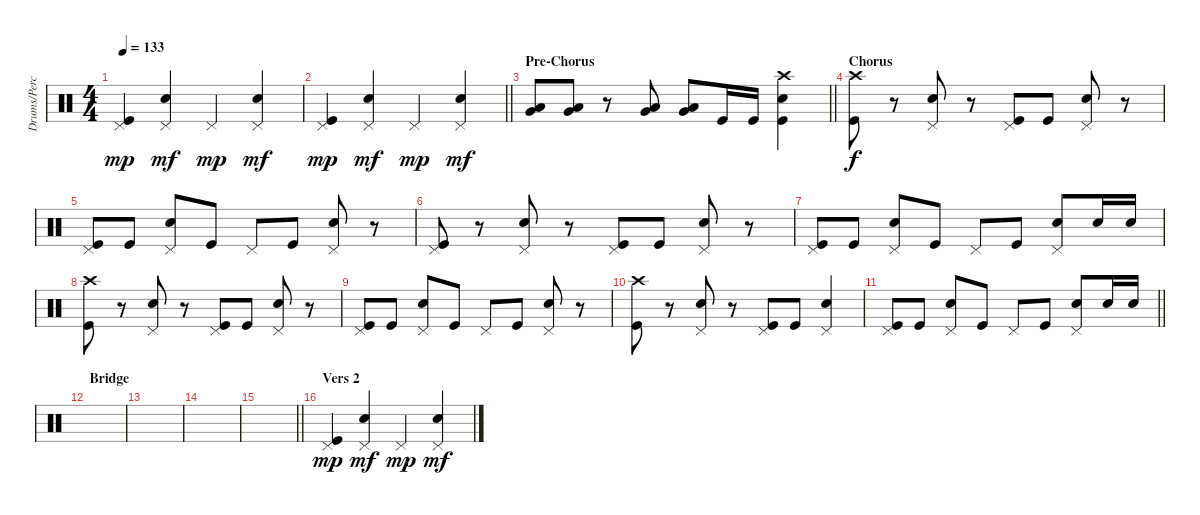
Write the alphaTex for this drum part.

\track ("Drums/Percussion" "Drums/Perc") {instrument percussion}
\staff {score}
\articulation defaults
\ts (4 4)
\tempo 133
\clef neutral
\ks c
("Pedal Hi-Hat (hit)" "Kick (hit)").4{dy mp} ("Pedal Hi-Hat (hit)" "Snare (hit) 2").4{dy mf} "Pedal Hi-Hat (hit)".4{dy mp} ("Pedal Hi-Hat (hit)" "Snare (hit) 2").4{dy mf} |
\barLineRight lightlight
("Pedal Hi-Hat (hit)" "Kick (hit)").4{dy mp} ("Pedal Hi-Hat (hit)" "Snare (hit) 2").4{dy mf} "Pedal Hi-Hat (hit)".4{dy mp} ("Pedal Hi-Hat (hit)" "Snare (hit) 2").4{dy mf} |
\section ("" "Pre-Chorus")
\barLineRight lightlight
("Low Floor Tom (hit)" "Very Low Tom (hit)").8 ("Low Floor Tom (hit)" "Very Low Tom (hit)").8 r.8 ("Low Floor Tom (hit)" "Very Low Tom (hit)").8 ("Low Floor Tom (hit)" "Very Low Tom (hit)").8 "Kick (hit)".16 "Kick (hit)".16 ("Crash high (hit)" "Kick (hit)" "Snare (hit) 2").4 |
\section ("" "Chorus")
("Crash high (hit)" "Kick (hit)").8{dy f} r.8 ("Pedal Hi-Hat (hit)" "Snare (hit) 2").8 r.8 ("Pedal Hi-Hat (hit)" "Kick (hit)").8 "Kick (hit)".8 ("Pedal Hi-Hat (hit)" "Snare (hit) 2").8 r.8 |
("Pedal Hi-Hat (hit)" "Kick (hit)").8 "Kick (hit)".8 ("Pedal Hi-Hat (hit)" "Snare (hit) 2").8 "Kick (hit)".8 "Pedal Hi-Hat (hit)".8 "Kick (hit)".8 ("Pedal Hi-Hat (hit)" "Snare (hit) 2").8 r.8 |
("Pedal Hi-Hat (hit)" "Kick (hit)").8 r.8 ("Pedal Hi-Hat (hit)" "Snare (hit) 2").8 r.8 ("Pedal Hi-Hat (hit)" "Kick (hit)").8 "Kick (hit)".8 ("Pedal Hi-Hat (hit)" "Snare (hit) 2").8 r.8 |
("Pedal Hi-Hat (hit)" "Kick (hit)").8 "Kick (hit)".8 ("Pedal Hi-Hat (hit)" "Snare (hit) 2").8 "Kick (hit)".8 "Pedal Hi-Hat (hit)".8 "Kick (hit)".8 ("Pedal Hi-Hat (hit)" "Snare (hit) 2").8 "Snare (hit) 2".16 "Snare (hit) 2".16 |
("Crash high (hit)" "Kick (hit)").8 r.8 ("Pedal Hi-Hat (hit)" "Snare (hit) 2").8 r.8 ("Pedal Hi-Hat (hit)" "Kick (hit)").8 "Kick (hit)".8 ("Pedal Hi-Hat (hit)" "Snare (hit) 2").8 r.8 |
("Pedal Hi-Hat (hit)" "Kick (hit)").8 "Kick (hit)".8 ("Pedal Hi-Hat (hit)" "Snare (hit) 2").8 "Kick (hit)".8 "Pedal Hi-Hat (hit)".8 "Kick (hit)".8 ("Pedal Hi-Hat (hit)" "Snare (hit) 2").8 r.8 |
("Crash high (hit)" "Kick (hit)").8 r.8 ("Pedal Hi-Hat (hit)" "Snare (hit) 2").8 r.8 ("Pedal Hi-Hat (hit)" "Kick (hit)").8 "Kick (hit)".8 ("Pedal Hi-Hat (hit)" "Snare (hit) 2").4 |
\barLineRight lightlight
("Pedal Hi-Hat (hit)" "Kick (hit)").8 "Kick (hit)".8 ("Pedal Hi-Hat (hit)" "Snare (hit) 2").8 "Kick (hit)".8 "Pedal Hi-Hat (hit)".8 "Kick (hit)".8 ("Pedal Hi-Hat (hit)" "Snare (hit) 2").8 "Snare (hit) 2".16 "Snare (hit) 2".16 |
\section ("" "Bridge")
|
|
|
\barLineRight lightlight
|
\section ("" "Vers 2")
("Pedal Hi-Hat (hit)" "Kick (hit)").4{dy mp} ("Pedal Hi-Hat (hit)" "Snare (hit) 2").4{dy mf} "Pedal Hi-Hat (hit)".4{dy mp} ("Pedal Hi-Hat (hit)" "Snare (hit) 2").4{dy mf}
